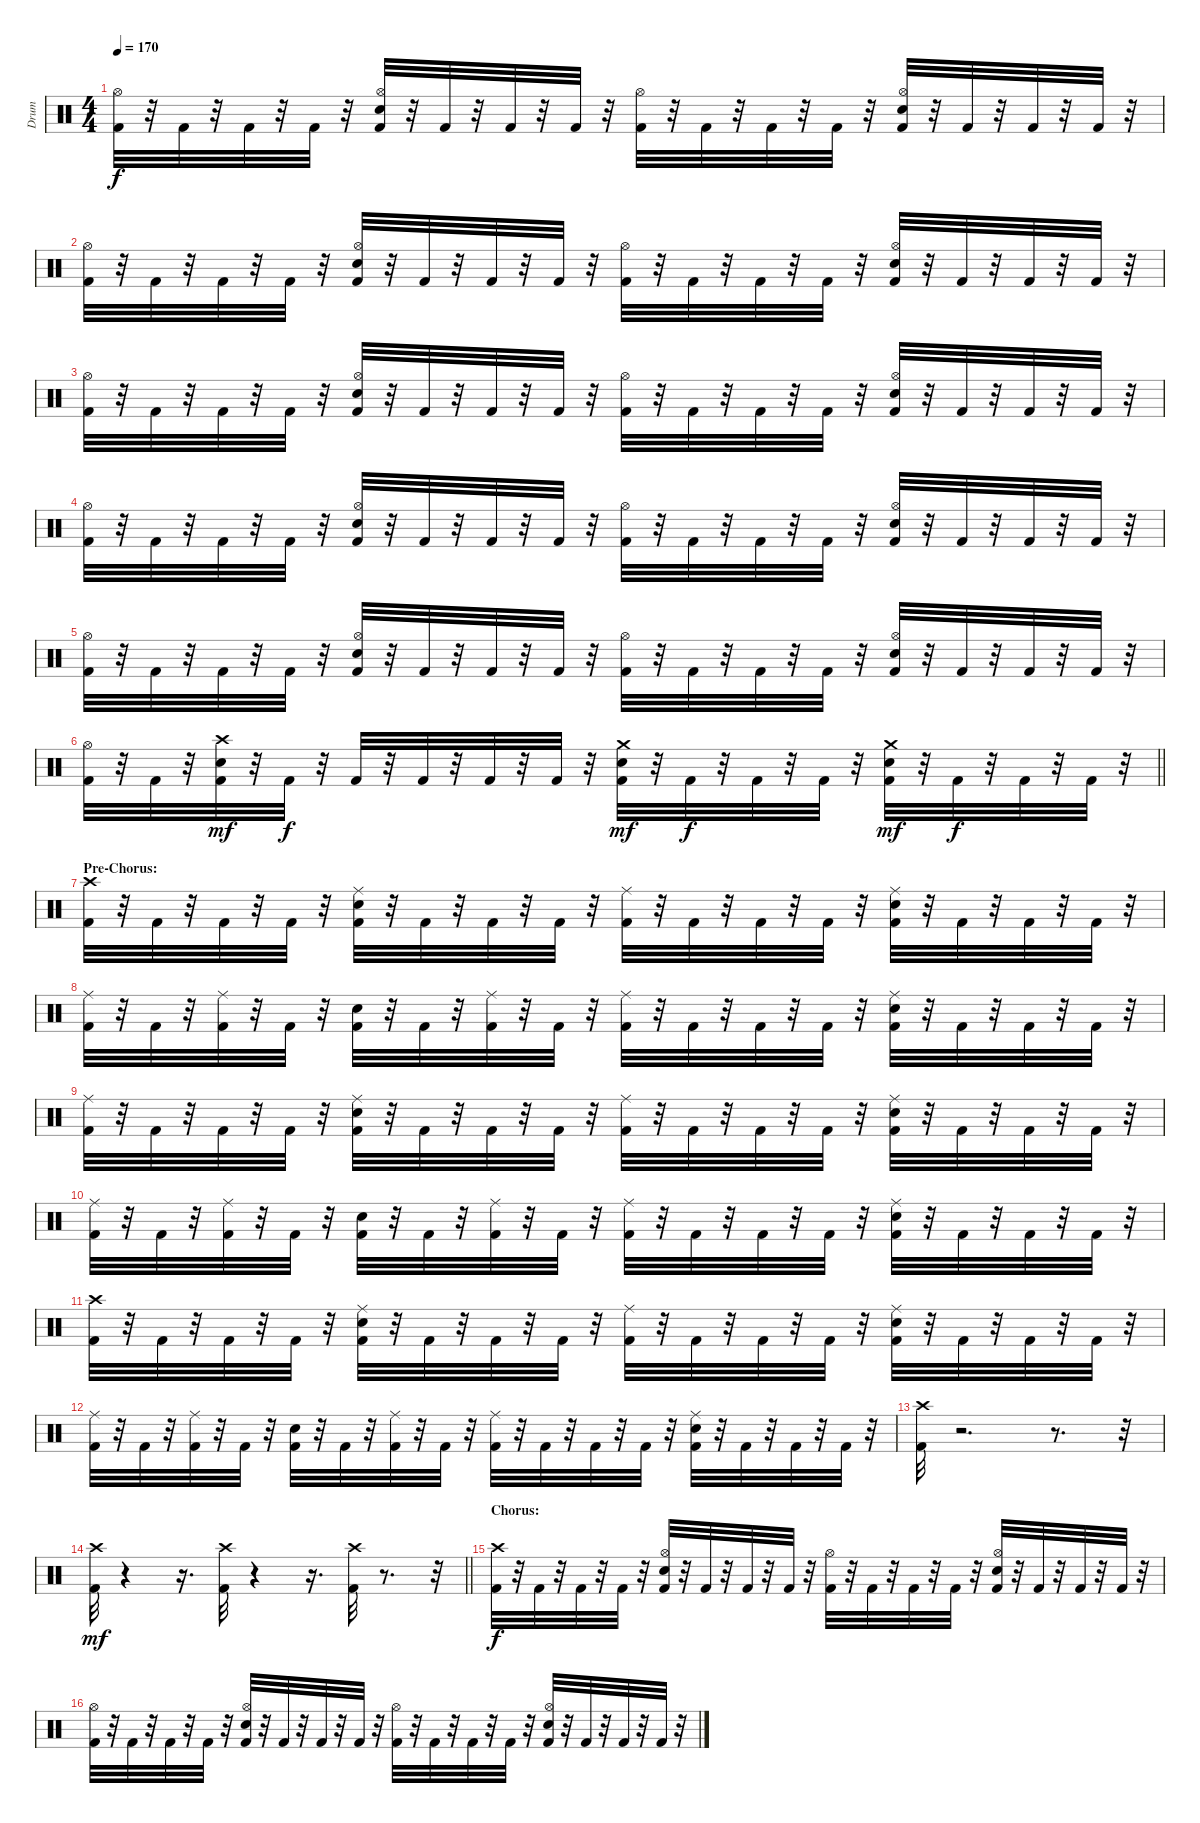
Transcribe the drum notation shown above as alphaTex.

\track ("Drum" "Drum") {instrument percussion}
\staff {score}
\articulation defaults
\ts (4 4)
\tempo 170
\clef neutral
\ks c
("Kick (hit) 2" "Hi-Hat (open)").32{dy f} r.32 "Kick (hit) 2".32 r.32 "Kick (hit) 2".32 r.32 "Kick (hit) 2".32 r.32 ("Kick (hit) 2" "Snare (hit) 2" "Hi-Hat (open)").32 r.32 "Kick (hit) 2".32 r.32 "Kick (hit) 2".32 r.32 "Kick (hit) 2".32 r.32 ("Kick (hit) 2" "Hi-Hat (open)").32 r.32 "Kick (hit) 2".32 r.32 "Kick (hit) 2".32 r.32 "Kick (hit) 2".32 r.32 ("Kick (hit) 2" "Snare (hit) 2" "Hi-Hat (open)").32 r.32 "Kick (hit) 2".32 r.32 "Kick (hit) 2".32 r.32 "Kick (hit) 2".32 r.32 |
("Kick (hit) 2" "Hi-Hat (open)").32 r.32 "Kick (hit) 2".32 r.32 "Kick (hit) 2".32 r.32 "Kick (hit) 2".32 r.32 ("Kick (hit) 2" "Snare (hit) 2" "Hi-Hat (open)").32 r.32 "Kick (hit) 2".32 r.32 "Kick (hit) 2".32 r.32 "Kick (hit) 2".32 r.32 ("Kick (hit) 2" "Hi-Hat (open)").32 r.32 "Kick (hit) 2".32 r.32 "Kick (hit) 2".32 r.32 "Kick (hit) 2".32 r.32 ("Kick (hit) 2" "Hi-Hat (open)" "Snare (hit) 2").32 r.32 "Kick (hit) 2".32 r.32 "Kick (hit) 2".32 r.32 "Kick (hit) 2".32 r.32 |
("Kick (hit) 2" "Hi-Hat (open)").32 r.32 "Kick (hit) 2".32 r.32 "Kick (hit) 2".32 r.32 "Kick (hit) 2".32 r.32 ("Kick (hit) 2" "Snare (hit) 2" "Hi-Hat (open)").32 r.32 "Kick (hit) 2".32 r.32 "Kick (hit) 2".32 r.32 "Kick (hit) 2".32 r.32 ("Kick (hit) 2" "Hi-Hat (open)").32 r.32 "Kick (hit) 2".32 r.32 "Kick (hit) 2".32 r.32 "Kick (hit) 2".32 r.32 ("Kick (hit) 2" "Snare (hit) 2" "Hi-Hat (open)").32 r.32 "Kick (hit) 2".32 r.32 "Kick (hit) 2".32 r.32 "Kick (hit) 2".32 r.32 |
("Kick (hit) 2" "Hi-Hat (open)").32 r.32 "Kick (hit) 2".32 r.32 "Kick (hit) 2".32 r.32 "Kick (hit) 2".32 r.32 ("Kick (hit) 2" "Snare (hit) 2" "Hi-Hat (open)").32 r.32 "Kick (hit) 2".32 r.32 "Kick (hit) 2".32 r.32 "Kick (hit) 2".32 r.32 ("Kick (hit) 2" "Hi-Hat (open)").32 r.32 "Kick (hit) 2".32 r.32 "Kick (hit) 2".32 r.32 "Kick (hit) 2".32 r.32 ("Kick (hit) 2" "Hi-Hat (open)" "Snare (hit) 2").32 r.32 "Kick (hit) 2".32 r.32 "Kick (hit) 2".32 r.32 "Kick (hit) 2".32 r.32 |
("Kick (hit) 2" "Hi-Hat (open)").32 r.32 "Kick (hit) 2".32 r.32 "Kick (hit) 2".32 r.32 "Kick (hit) 2".32 r.32 ("Kick (hit) 2" "Snare (hit) 2" "Hi-Hat (open)").32 r.32 "Kick (hit) 2".32 r.32 "Kick (hit) 2".32 r.32 "Kick (hit) 2".32 r.32 ("Kick (hit) 2" "Hi-Hat (open)").32 r.32 "Kick (hit) 2".32 r.32 "Kick (hit) 2".32 r.32 "Kick (hit) 2".32 r.32 ("Kick (hit) 2" "Snare (hit) 2" "Hi-Hat (open)").32 r.32 "Kick (hit) 2".32 r.32 "Kick (hit) 2".32 r.32 "Kick (hit) 2".32 r.32 |
\barLineRight lightlight
("Kick (hit) 2" "Hi-Hat (open)").32 r.32 "Kick (hit) 2".32 r.32 ("Crash high (hit)" "Snare (hit) 2" "Kick (hit) 2").32{dy mf} r.32 "Kick (hit) 2".32{dy f} r.32 "Kick (hit) 2".32 r.32 "Kick (hit) 2".32 r.32 "Kick (hit) 2".32 r.32 "Kick (hit) 2".32 r.32 ("Crash medium (hit)" "Snare (hit) 2" "Kick (hit) 2").32{dy mf} r.32 "Kick (hit) 2".32{dy f} r.32 "Kick (hit) 2".32 r.32 "Kick (hit) 2".32 r.32 ("Crash medium (hit)" "Snare (hit) 2" "Kick (hit) 2").32{dy mf} r.32 "Kick (hit) 2".32{dy f} r.32 "Kick (hit) 2".32 r.32 "Kick (hit) 2".32 r.32 |
\section ("" "Pre-Chorus:")
("Crash high (hit)" "Kick (hit) 2").32 r.32 "Kick (hit) 2".32 r.32 "Kick (hit) 2".32 r.32 "Kick (hit) 2".32 r.32 ("Kick (hit) 2" "Snare (hit) 2" "Ride (middle)").32 r.32 "Kick (hit) 2".32 r.32 "Kick (hit) 2".32 r.32 "Kick (hit) 2".32 r.32 ("Kick (hit) 2" "Ride (middle)").32 r.32 "Kick (hit) 2".32 r.32 "Kick (hit) 2".32 r.32 "Kick (hit) 2".32 r.32 ("Kick (hit) 2" "Snare (hit) 2" "Ride (middle)").32 r.32 "Kick (hit) 2".32 r.32 "Kick (hit) 2".32 r.32 "Kick (hit) 2".32 r.32 |
("Kick (hit) 2" "Ride (middle)").32 r.32 "Kick (hit) 2".32 r.32 ("Kick (hit) 2" "Ride (middle)").32 r.32 "Kick (hit) 2".32 r.32 ("Kick (hit) 2" "Snare (hit) 2").32 r.32 "Kick (hit) 2".32 r.32 ("Kick (hit) 2" "Ride (middle)").32 r.32 "Kick (hit) 2".32 r.32 ("Kick (hit) 2" "Ride (middle)").32 r.32 "Kick (hit) 2".32 r.32 "Kick (hit) 2".32 r.32 "Kick (hit) 2".32 r.32 ("Kick (hit) 2" "Snare (hit) 2" "Ride (middle)").32 r.32 "Kick (hit) 2".32 r.32 "Kick (hit) 2".32 r.32 "Kick (hit) 2".32 r.32 |
("Kick (hit) 2" "Ride (middle)").32 r.32 "Kick (hit) 2".32 r.32 "Kick (hit) 2".32 r.32 "Kick (hit) 2".32 r.32 ("Kick (hit) 2" "Ride (middle)" "Snare (hit) 2").32 r.32 "Kick (hit) 2".32 r.32 "Kick (hit) 2".32 r.32 "Kick (hit) 2".32 r.32 ("Kick (hit) 2" "Ride (middle)").32 r.32 "Kick (hit) 2".32 r.32 "Kick (hit) 2".32 r.32 "Kick (hit) 2".32 r.32 ("Kick (hit) 2" "Ride (middle)" "Snare (hit) 2").32 r.32 "Kick (hit) 2".32 r.32 "Kick (hit) 2".32 r.32 "Kick (hit) 2".32 r.32 |
("Kick (hit) 2" "Ride (middle)").32 r.32 "Kick (hit) 2".32 r.32 ("Kick (hit) 2" "Ride (middle)").32 r.32 "Kick (hit) 2".32 r.32 ("Kick (hit) 2" "Snare (hit) 2").32 r.32 "Kick (hit) 2".32 r.32 ("Kick (hit) 2" "Ride (middle)").32 r.32 "Kick (hit) 2".32 r.32 ("Kick (hit) 2" "Ride (middle)").32 r.32 "Kick (hit) 2".32 r.32 "Kick (hit) 2".32 r.32 "Kick (hit) 2".32 r.32 ("Kick (hit) 2" "Ride (middle)" "Snare (hit) 2").32 r.32 "Kick (hit) 2".32 r.32 "Kick (hit) 2".32 r.32 "Kick (hit) 2".32 r.32 |
("Kick (hit) 2" "Crash high (hit)").32 r.32 "Kick (hit) 2".32 r.32 "Kick (hit) 2".32 r.32 "Kick (hit) 2".32 r.32 ("Kick (hit) 2" "Ride (middle)" "Snare (hit) 2").32 r.32 "Kick (hit) 2".32 r.32 "Kick (hit) 2".32 r.32 "Kick (hit) 2".32 r.32 ("Kick (hit) 2" "Ride (middle)").32 r.32 "Kick (hit) 2".32 r.32 "Kick (hit) 2".32 r.32 "Kick (hit) 2".32 r.32 ("Kick (hit) 2" "Ride (middle)" "Snare (hit) 2").32 r.32 "Kick (hit) 2".32 r.32 "Kick (hit) 2".32 r.32 "Kick (hit) 2".32 r.32 |
("Kick (hit) 2" "Ride (middle)").32 r.32 "Kick (hit) 2".32 r.32 ("Kick (hit) 2" "Ride (middle)").32 r.32 "Kick (hit) 2".32 r.32 ("Kick (hit) 2" "Snare (hit) 2").32 r.32 "Kick (hit) 2".32 r.32 ("Kick (hit) 2" "Ride (middle)").32 r.32 "Kick (hit) 2".32 r.32 ("Kick (hit) 2" "Ride (middle)").32 r.32 "Kick (hit) 2".32 r.32 "Kick (hit) 2".32 r.32 "Kick (hit) 2".32 r.32 ("Kick (hit) 2" "Ride (middle)" "Snare (hit) 2").32 r.32 "Kick (hit) 2".32 r.32 "Kick (hit) 2".32 r.32 "Kick (hit) 2".32 r.32 |
("Crash high (hit)" "Kick (hit) 2").32 r.2{d} r.8{d} r.32 |
\barLineRight lightlight
("Crash high (hit)" "Kick (hit) 2").32{dy mf} r.4 r.16{d} ("Crash high (hit)" "Kick (hit) 2").32 r.4 r.16{d} ("Crash high (hit)" "Kick (hit) 2").32 r.8{d} r.32 |
\section ("" "Chorus:")
("Kick (hit) 2" "Crash high (hit)").32{dy f} r.32 "Kick (hit) 2".32 r.32 "Kick (hit) 2".32 r.32 "Kick (hit) 2".32 r.32 ("Hi-Hat (open)" "Snare (hit) 2" "Kick (hit) 2").32 r.32 "Kick (hit) 2".32 r.32 "Kick (hit) 2".32 r.32 "Kick (hit) 2".32 r.32 ("Hi-Hat (open)" "Kick (hit) 2").32 r.32 "Kick (hit) 2".32 r.32 "Kick (hit) 2".32 r.32 "Kick (hit) 2".32 r.32 ("Kick (hit) 2" "Snare (hit) 2" "Hi-Hat (open)").32 r.32 "Kick (hit) 2".32 r.32 "Kick (hit) 2".32 r.32 "Kick (hit) 2".32 r.32 |
("Kick (hit) 2" "Hi-Hat (open)").32 r.32 "Kick (hit) 2".32 r.32 "Kick (hit) 2".32 r.32 "Kick (hit) 2".32 r.32 ("Kick (hit) 2" "Hi-Hat (open)" "Snare (hit) 2").32 r.32 "Kick (hit) 2".32 r.32 "Kick (hit) 2".32 r.32 "Kick (hit) 2".32 r.32 ("Kick (hit) 2" "Hi-Hat (open)").32 r.32 "Kick (hit) 2".32 r.32 "Kick (hit) 2".32 r.32 "Kick (hit) 2".32 r.32 ("Kick (hit) 2" "Hi-Hat (open)" "Snare (hit) 2").32 r.32 "Kick (hit) 2".32 r.32 "Kick (hit) 2".32 r.32 "Kick (hit) 2".32 r.32
